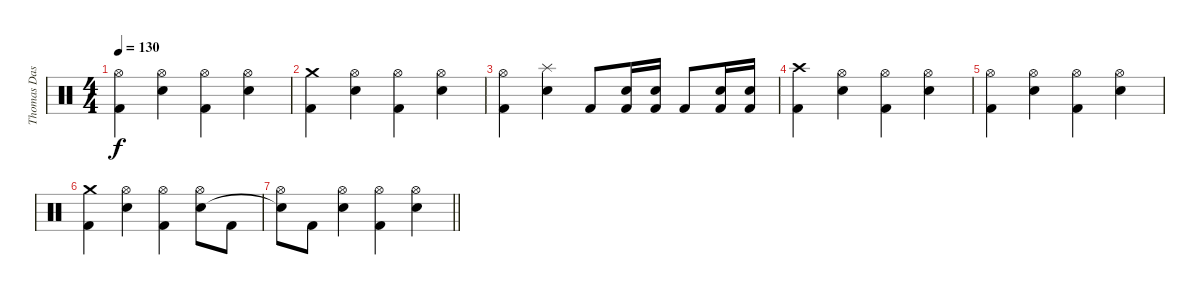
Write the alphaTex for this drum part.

\track ("Thomas Das Neves (Drums)" "Thomas Das") {instrument percussion}
\staff {score}
\articulation defaults
\ts (4 4)
\tempo 130
\clef neutral
\ks c
("Hi-Hat (open)" "Kick (hit) 2").4{dy f volume 9} ("Hi-Hat (open)" "Snare (hit) 2").4 ("Hi-Hat (open)" "Kick (hit) 2").4 ("Hi-Hat (open)" "Snare (hit) 2").4 |
("Crash medium (hit)" "Kick (hit) 2").4{volume 8} ("Hi-Hat (open)" "Snare (hit) 2").4 ("Hi-Hat (open)" "Kick (hit) 2").4 ("Hi-Hat (open)" "Snare (hit) 2").4 |
("Hi-Hat (open)" "Kick (hit) 2").4{volume 6} ("Splash (hit)" "Snare (hit) 2").4 "Kick (hit) 2".8 ("Snare (hit) 2" "Kick (hit) 2").16 ("Snare (hit) 2" "Kick (hit) 2").16 "Kick (hit) 2".8 ("Snare (hit) 2" "Kick (hit) 2").16 ("Snare (hit) 2" "Kick (hit) 2").16 |
("Crash high (hit)" "Kick (hit) 2").4{volume 5} ("Hi-Hat (open)" "Snare (hit) 2").4 ("Hi-Hat (open)" "Kick (hit) 2").4 ("Hi-Hat (open)" "Snare (hit) 2").4 |
("Hi-Hat (open)" "Kick (hit) 2").4{volume 4} ("Hi-Hat (open)" "Snare (hit) 2").4 ("Hi-Hat (open)" "Kick (hit) 2").4 ("Hi-Hat (open)" "Snare (hit) 2").4 |
("Crash medium (hit)" "Kick (hit) 2").4{volume 3} ("Hi-Hat (open)" "Snare (hit) 2").4 ("Hi-Hat (open)" "Kick (hit) 2").4 ("Hi-Hat (open)" "Snare (hit) 2").8 "Kick (hit) 2".8 |
\barLineRight lightlight
("Hi-Hat (open)" "Snare (hit)"{t}).8{volume 1} "Kick (hit) 2".8 ("Hi-Hat (open)" "Snare (hit) 2").4 ("Hi-Hat (open)" "Kick (hit) 2").4 ("Hi-Hat (open)" "Snare (hit) 2").4
